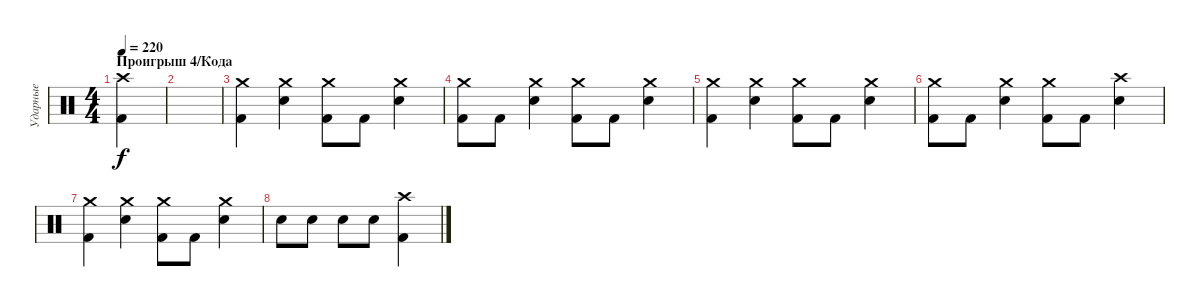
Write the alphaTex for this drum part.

\track ("Ударные" "Ударные") {instrument percussion}
\staff {score}
\articulation defaults
\ts (4 4)
\section ("" "Проигрыш 4/Кода")
\tempo 220
\clef neutral
\ks c
("Crash high (hit)" "Kick (hit) 2").4{dy f} |
|
("Crash medium (hit)" "Kick (hit) 2").4 ("Crash medium (hit)" "Snare (hit) 2").4 ("Crash medium (hit)" "Kick (hit) 2").8 "Kick (hit) 2".8 ("Crash medium (hit)" "Snare (hit) 2").4 |
("Crash medium (hit)" "Kick (hit) 2").8 "Kick (hit) 2".8 ("Crash medium (hit)" "Snare (hit) 2").4 ("Crash medium (hit)" "Kick (hit) 2").8 "Kick (hit) 2".8 ("Crash medium (hit)" "Snare (hit) 2").4 |
("Crash medium (hit)" "Kick (hit) 2").4 ("Crash medium (hit)" "Snare (hit) 2").4 ("Crash medium (hit)" "Kick (hit) 2").8 "Kick (hit) 2".8 ("Crash medium (hit)" "Snare (hit) 2").4 |
("Crash medium (hit)" "Kick (hit) 2").8 "Kick (hit) 2".8 ("Crash medium (hit)" "Snare (hit) 2").4 ("Crash medium (hit)" "Kick (hit) 2").8 "Kick (hit) 2".8 ("Crash high (hit)" "Snare (hit) 2").4 |
("Crash medium (hit)" "Kick (hit) 2").4 ("Crash medium (hit)" "Snare (hit) 2").4 ("Crash medium (hit)" "Kick (hit) 2").8 "Kick (hit) 2".8 ("Crash medium (hit)" "Snare (hit) 2").4 |
"Snare (hit) 2".8 "Snare (hit) 2".8 "Snare (hit) 2".8 "Snare (hit) 2".8 ("Crash high (hit)" "Kick (hit) 2").4
